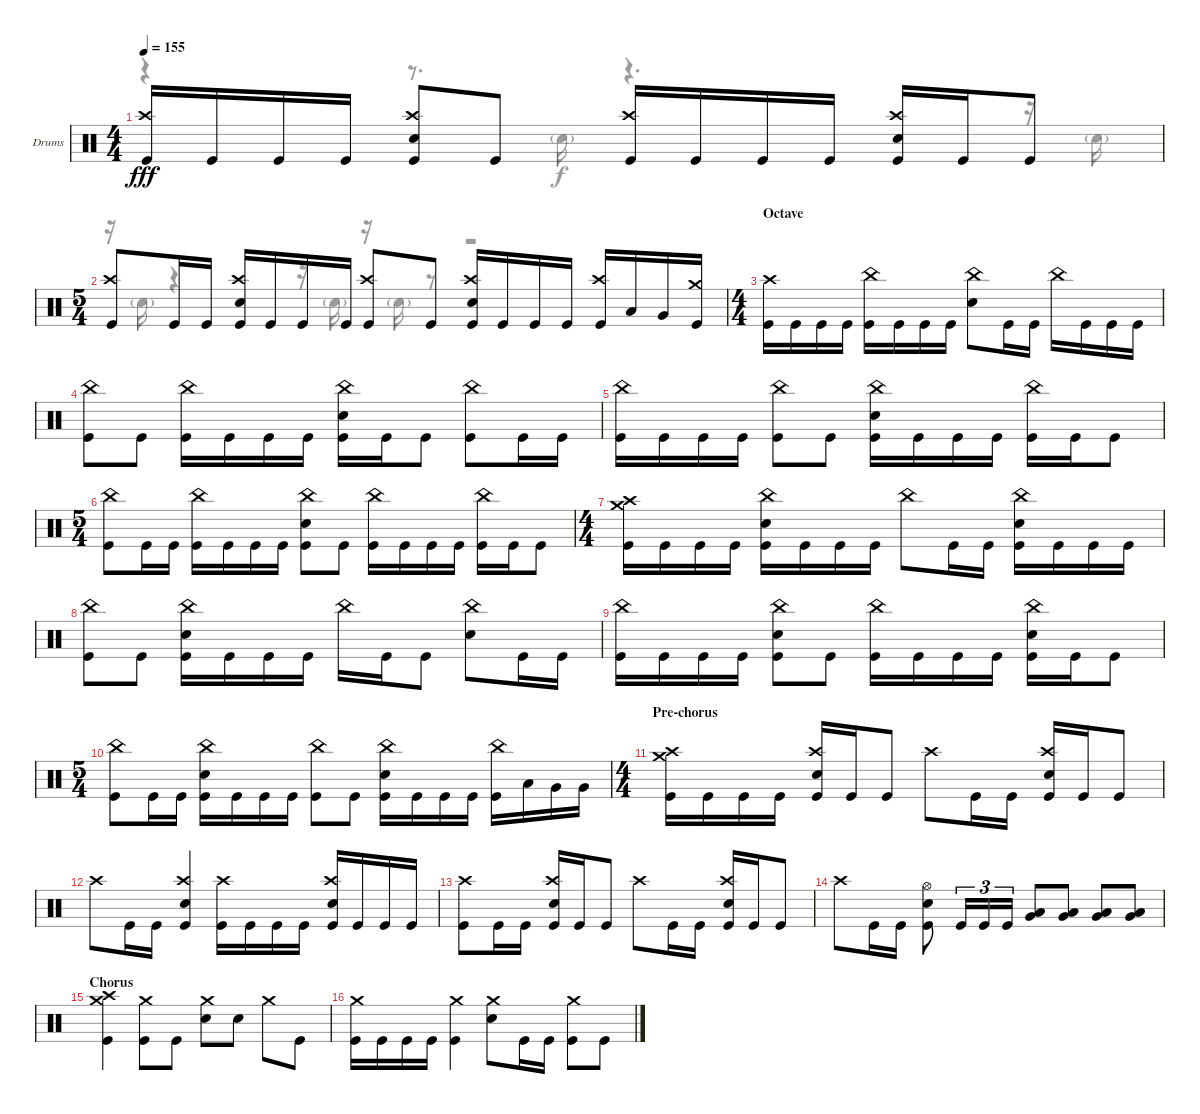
\defaultSystemsLayout 4
\bracketExtendMode groupsimilarinstruments
\firstSystemTrackNameOrientation horizontal
\otherSystemsTrackNameOrientation horizontal
\track ("Alex Rudinger" "Drums") {instrument percussion}
\staff {score}
\articulation defaults
\voice
\ts (4 4)
\tempo 155
\clef neutral
\ks c
("Kick (hit)" "Crash high (hit)").16{dy fff} "Kick (hit)".16 "Kick (hit)".16 "Kick (hit)".16 ("Snare (hit) 2" "Kick (hit)" "Crash high (hit)").8 "Kick (hit)".8 ("Kick (hit)" "Crash high (hit)").16 "Kick (hit)".16 "Kick (hit)".16 "Kick (hit)".16 ("Snare (hit) 2" "Kick (hit)" "Crash high (hit)").16 "Kick (hit)".16 "Kick (hit)".8 |
\ts (5 4)
("Kick (hit)" "Crash high (hit)").8 "Kick (hit)".16 "Kick (hit)".16 ("Snare (hit) 2" "Kick (hit)" "Crash high (hit)").16 "Kick (hit)".16 "Kick (hit)".16 "Kick (hit)".16 ("Kick (hit)" "Crash high (hit)").8 "Kick (hit)".8 ("Snare (hit) 2" "Kick (hit)" "Crash high (hit)").16 "Kick (hit)".16 "Kick (hit)".16 "Kick (hit)".16 ("Kick (hit)" "Crash high (hit)").16 "Low Tom (hit)".16 "Very Low Tom (hit)".16 ("Kick (hit)" "Crash medium (hit)").16 |
\ts (4 4)
\section ("" "Octave")
("Kick (hit)" "Crash high (hit)").16 "Kick (hit)".16 "Kick (hit)".16 "Kick (hit)".16 ("Kick (hit)" "China (hit)").16 "Kick (hit)".16 "Kick (hit)".16 "Kick (hit)".16 ("Snare (hit) 2" "China (hit)").8 "Kick (hit)".16 "Kick (hit)".16 "China (hit)".16 "Kick (hit)".16 "Kick (hit)".16 "Kick (hit)".16 |
("Kick (hit)" "China (hit)").8 "Kick (hit)".8 ("Kick (hit)" "China (hit)").16 "Kick (hit)".16 "Kick (hit)".16 "Kick (hit)".16 ("Snare (hit) 2" "Kick (hit)" "China (hit)").16 "Kick (hit)".16 "Kick (hit)".8 ("Kick (hit)" "China (hit)").8 "Kick (hit)".16 "Kick (hit)".16 |
("Kick (hit)" "China (hit)").16 "Kick (hit)".16 "Kick (hit)".16 "Kick (hit)".16 ("Kick (hit)" "China (hit)").8 "Kick (hit)".8 ("China (hit)" "Snare (hit) 2" "Kick (hit)").16 "Kick (hit)".16 "Kick (hit)".16 "Kick (hit)".16 ("Kick (hit)" "China (hit)").16 "Kick (hit)".16 "Kick (hit)".8 |
\ts (5 4)
("Kick (hit)" "China (hit)").8 "Kick (hit)".16 "Kick (hit)".16 ("Kick (hit)" "China (hit)").16 "Kick (hit)".16 "Kick (hit)".16 "Kick (hit)".16 ("Snare (hit) 2" "China (hit)" "Kick (hit)").8 "Kick (hit)".8 ("Kick (hit)" "China (hit)").16 "Kick (hit)".16 "Kick (hit)".16 "Kick (hit)".16 ("Kick (hit)" "China (hit)").16 "Kick (hit)".16 "Kick (hit)".8 |
\ts (4 4)
("Kick (hit)" "Crash high (hit)" "Crash medium (hit)").16 "Kick (hit)".16 "Kick (hit)".16 "Kick (hit)".16 ("Kick (hit)" "China (hit)" "Snare (hit) 2").16 "Kick (hit)".16 "Kick (hit)".16 "Kick (hit)".16 "China (hit)".8 "Kick (hit)".16 "Kick (hit)".16 ("China (hit)" "Snare (hit) 2" "Kick (hit)").16 "Kick (hit)".16 "Kick (hit)".16 "Kick (hit)".16 |
("Kick (hit)" "China (hit)").8 "Kick (hit)".8 ("Kick (hit)" "China (hit)" "Snare (hit) 2").16 "Kick (hit)".16 "Kick (hit)".16 "Kick (hit)".16 "China (hit)".16 "Kick (hit)".16 "Kick (hit)".8 ("China (hit)" "Snare (hit) 2").8 "Kick (hit)".16 "Kick (hit)".16 |
("Kick (hit)" "China (hit)").16 "Kick (hit)".16 "Kick (hit)".16 "Kick (hit)".16 ("Kick (hit)" "China (hit)" "Snare (hit) 2").8 "Kick (hit)".8 ("China (hit)" "Kick (hit)").16 "Kick (hit)".16 "Kick (hit)".16 "Kick (hit)".16 ("Kick (hit)" "China (hit)" "Snare (hit) 2").16 "Kick (hit)".16 "Kick (hit)".8 |
\ts (5 4)
("Kick (hit)" "China (hit)").8 "Kick (hit)".16 "Kick (hit)".16 ("Kick (hit)" "China (hit)" "Snare (hit) 2").16 "Kick (hit)".16 "Kick (hit)".16 "Kick (hit)".16 ("China (hit)" "Kick (hit)").8 "Kick (hit)".8 ("Kick (hit)" "China (hit)" "Snare (hit) 2").16 "Kick (hit)".16 "Kick (hit)".16 "Kick (hit)".16 ("Kick (hit)" "China (hit)").16 "Low Tom (hit)".16 "Very Low Tom (hit)".16 "Very Low Tom (hit)".16 |
\ts (4 4)
\section ("" "Pre-chorus")
("Kick (hit)" "Crash high (hit)" "Crash medium (hit)").16 "Kick (hit)".16 "Kick (hit)".16 "Kick (hit)".16 ("Kick (hit)" "Snare (hit) 2" "Crash high (hit)").16 "Kick (hit)".16 "Kick (hit)".8 "Crash high (hit)".8 "Kick (hit)".16 "Kick (hit)".16 ("Kick (hit)" "Snare (hit) 2" "Crash high (hit)").16 "Kick (hit)".16 "Kick (hit)".8 |
"Crash high (hit)".8 "Kick (hit)".16 "Kick (hit)".16 ("Kick (hit)" "Snare (hit) 2" "Crash high (hit)").4 ("Kick (hit)" "Crash high (hit)").16 "Kick (hit)".16 "Kick (hit)".16 "Kick (hit)".16 ("Kick (hit)" "Snare (hit) 2" "Crash high (hit)").16 "Kick (hit)".16 "Kick (hit)".16 "Kick (hit)".16 |
("Kick (hit)" "Crash high (hit)").8 "Kick (hit)".16 "Kick (hit)".16 ("Kick (hit)" "Snare (hit) 2" "Crash high (hit)").16 "Kick (hit)".16 "Kick (hit)".8 "Crash high (hit)".8 "Kick (hit)".16 "Kick (hit)".16 ("Snare (hit) 2" "Kick (hit)" "Crash high (hit)").16 "Kick (hit)".16 "Kick (hit)".8 |
"Crash high (hit)".8 "Kick (hit)".16 "Kick (hit)".16 ("Snare (hit) 2" "Kick (hit)" "Hi-Hat (open)").8 "Kick (hit)".16{tu (3 2)} "Kick (hit)".16{tu (3 2)} "Kick (hit)".16{tu (3 2)} ("Very Low Tom (hit)" "Low Tom (hit)").8 ("Very Low Tom (hit)" "Low Tom (hit)").8 ("Very Low Tom (hit)" "Low Tom (hit)").8 ("Very Low Tom (hit)" "Low Tom (hit)").8 |
\section ("" "Chorus")
("Kick (hit)" "Crash high (hit)" "Crash medium (hit)").4 ("Kick (hit)" "Crash medium (hit)").8 "Kick (hit)".8 ("Snare (hit) 2" "Crash medium (hit)").8 "Snare (hit) 2".8 "Crash medium (hit)".8 "Kick (hit)".8 |
("Kick (hit)" "Crash medium (hit)").16 "Kick (hit)".16 "Kick (hit)".16 "Kick (hit)".16 ("Kick (hit)" "Crash medium (hit)").4 ("Snare (hit) 2" "Crash medium (hit)").8 "Kick (hit)".16 "Kick (hit)".16 ("Kick (hit)" "Crash medium (hit)").8 "Kick (hit)".8
\voice
\clef neutral
\ottava regular
\simile none
\ks c
r.4{dy f} r.8{d} "Snare (hit) 2"{g}.16 r.4{d} r.16 "Snare (hit) 2"{g}.16 |
r.16 "Snare (hit) 2"{g}.16 r.4 r.16 "Snare (hit) 2"{g}.16 r.16 "Snare (hit) 2"{g}.16 r.8 r.2 |
|
|
|
|
|
|
|
|
|
|
|
|
|
